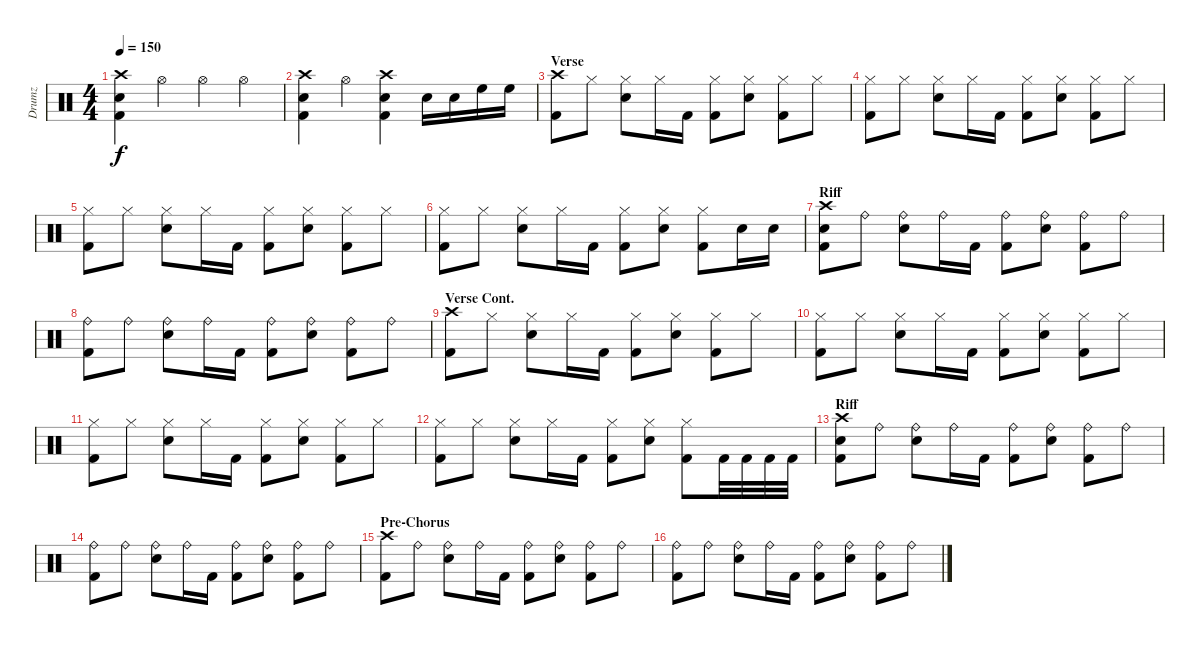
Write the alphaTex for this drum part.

\track ("Drumz" "Drumz") {instrument percussion}
\staff {score}
\articulation defaults
\ts (4 4)
\tempo 150
\clef neutral
\ks c
("Crash high (hit)" "Snare (hit) 2" "Kick (hit) 2").4{dy f} "Hi-Hat (open)".4 "Hi-Hat (open)".4 "Hi-Hat (open)".4 |
("Crash high (hit)" "Snare (hit) 2" "Kick (hit) 2").4 "Hi-Hat (open)".4 ("Crash high (hit)" "Snare (hit) 2" "Kick (hit) 2").4 "Snare (hit) 2".16 "Snare (hit) 2".16 "High Floor Tom (hit)".16 "High Floor Tom (hit)".16 |
\section ("" "Verse")
("Crash high (hit)" "Kick (hit) 2").8 "Hi-Hat (closed)".8 ("Hi-Hat (closed)" "Snare (hit) 2").8 "Hi-Hat (closed)".16 "Kick (hit) 2".16 ("Hi-Hat (closed)" "Kick (hit) 2").8 ("Hi-Hat (closed)" "Snare (hit) 2").8 ("Hi-Hat (closed)" "Kick (hit) 2").8 "Hi-Hat (closed)".8 |
("Hi-Hat (closed)" "Kick (hit) 2").8 "Hi-Hat (closed)".8 ("Hi-Hat (closed)" "Snare (hit) 2").8 "Hi-Hat (closed)".16 "Kick (hit) 2".16 ("Hi-Hat (closed)" "Kick (hit) 2").8 ("Hi-Hat (closed)" "Snare (hit) 2").8 ("Hi-Hat (closed)" "Kick (hit) 2").8 "Hi-Hat (closed)".8 |
("Hi-Hat (closed)" "Kick (hit) 2").8 "Hi-Hat (closed)".8 ("Hi-Hat (closed)" "Snare (hit) 2").8 "Hi-Hat (closed)".16 "Kick (hit) 2".16 ("Hi-Hat (closed)" "Kick (hit) 2").8 ("Hi-Hat (closed)" "Snare (hit) 2").8 ("Hi-Hat (closed)" "Kick (hit) 2").8 "Hi-Hat (closed)".8 |
("Hi-Hat (closed)" "Kick (hit) 2").8 "Hi-Hat (closed)".8 ("Hi-Hat (closed)" "Snare (hit) 2").8 "Hi-Hat (closed)".16 "Kick (hit) 2".16 ("Hi-Hat (closed)" "Kick (hit) 2").8 ("Hi-Hat (closed)" "Snare (hit) 2").8 ("Hi-Hat (closed)" "Kick (hit) 2").8 "Snare (hit) 2".16 "Snare (hit) 2".16 |
\section ("" "Riff")
("Crash high (hit)" "Snare (hit) 2" "Kick (hit) 2").8 "Ride (bell)".8 ("Ride (bell)" "Snare (hit) 2").8 "Ride (bell)".16 "Kick (hit) 2".16 ("Ride (bell)" "Kick (hit) 2").8 ("Ride (bell)" "Snare (hit) 2").8 ("Ride (bell)" "Kick (hit) 2").8 "Ride (bell)".8 |
("Ride (bell)" "Kick (hit) 2").8 "Ride (bell)".8 ("Ride (bell)" "Snare (hit) 2").8 "Ride (bell)".16 "Kick (hit) 2".16 ("Ride (bell)" "Kick (hit) 2").8 ("Ride (bell)" "Snare (hit) 2").8 ("Ride (bell)" "Kick (hit) 2").8 "Ride (bell)".8 |
\section ("" "Verse Cont.")
("Crash high (hit)" "Kick (hit) 2").8 "Hi-Hat (closed)".8 ("Hi-Hat (closed)" "Snare (hit) 2").8 "Hi-Hat (closed)".16 "Kick (hit) 2".16 ("Hi-Hat (closed)" "Kick (hit) 2").8 ("Hi-Hat (closed)" "Snare (hit) 2").8 ("Hi-Hat (closed)" "Kick (hit) 2").8 "Hi-Hat (closed)".8 |
("Hi-Hat (closed)" "Kick (hit) 2").8 "Hi-Hat (closed)".8 ("Hi-Hat (closed)" "Snare (hit) 2").8 "Hi-Hat (closed)".16 "Kick (hit) 2".16 ("Hi-Hat (closed)" "Kick (hit) 2").8 ("Hi-Hat (closed)" "Snare (hit) 2").8 ("Hi-Hat (closed)" "Kick (hit) 2").8 "Hi-Hat (closed)".8 |
("Hi-Hat (closed)" "Kick (hit) 2").8 "Hi-Hat (closed)".8 ("Hi-Hat (closed)" "Snare (hit) 2").8 "Hi-Hat (closed)".16 "Kick (hit) 2".16 ("Hi-Hat (closed)" "Kick (hit) 2").8 ("Hi-Hat (closed)" "Snare (hit) 2").8 ("Hi-Hat (closed)" "Kick (hit) 2").8 "Hi-Hat (closed)".8 |
("Hi-Hat (closed)" "Kick (hit) 2").8 "Hi-Hat (closed)".8 ("Hi-Hat (closed)" "Snare (hit) 2").8 "Hi-Hat (closed)".16 "Kick (hit) 2".16 ("Hi-Hat (closed)" "Kick (hit) 2").8 ("Hi-Hat (closed)" "Snare (hit) 2").8 ("Hi-Hat (closed)" "Kick (hit) 2").8 "Kick (hit) 2".32 "Kick (hit) 2".32 "Kick (hit) 2".32 "Kick (hit) 2".32 |
\section ("" "Riff")
("Crash high (hit)" "Snare (hit) 2" "Kick (hit) 2").8 "Ride (bell)".8 ("Ride (bell)" "Snare (hit) 2").8 "Ride (bell)".16 "Kick (hit) 2".16 ("Ride (bell)" "Kick (hit) 2").8 ("Ride (bell)" "Snare (hit) 2").8 ("Ride (bell)" "Kick (hit) 2").8 "Ride (bell)".8 |
("Ride (bell)" "Kick (hit) 2").8 "Ride (bell)".8 ("Ride (bell)" "Snare (hit) 2").8 "Ride (bell)".16 "Kick (hit) 2".16 ("Ride (bell)" "Kick (hit) 2").8 ("Ride (bell)" "Snare (hit) 2").8 ("Ride (bell)" "Kick (hit) 2").8 "Ride (bell)".8 |
\section ("" "Pre-Chorus")
("Crash high (hit)" "Kick (hit) 2").8 "Ride (bell)".8 ("Ride (bell)" "Snare (hit) 2").8 "Ride (bell)".16 "Kick (hit) 2".16 ("Ride (bell)" "Kick (hit) 2").8 ("Ride (bell)" "Snare (hit) 2").8 ("Ride (bell)" "Kick (hit) 2").8 "Ride (bell)".8 |
("Ride (bell)" "Kick (hit) 2").8 "Ride (bell)".8 ("Ride (bell)" "Snare (hit) 2").8 "Ride (bell)".16 "Kick (hit) 2".16 ("Ride (bell)" "Kick (hit) 2").8 ("Ride (bell)" "Snare (hit) 2").8 ("Ride (bell)" "Kick (hit) 2").8 "Ride (bell)".8
